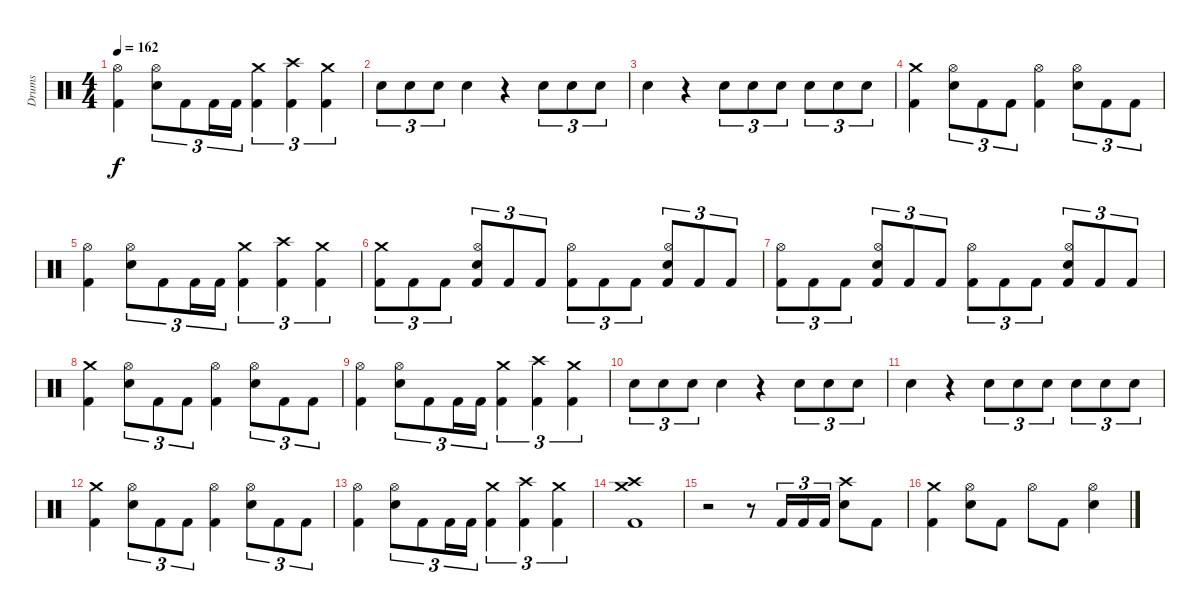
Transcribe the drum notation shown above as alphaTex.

\track ("Drums" "Drums") {instrument percussion}
\staff {score}
\articulation defaults
\ts (4 4)
\tempo 162
\clef neutral
\ks c
("Kick (hit) 2" "Hi-Hat (open)").4{dy f} ("Electric Snare (hit)" "Hi-Hat (open)").8{tu (3 2)} "Kick (hit) 2".8{tu (3 2)} "Kick (hit) 2".16{tu (3 2)} "Kick (hit) 2".16{tu (3 2)} ("Kick (hit) 2" "Crash medium (hit)").4{tu (3 2)} ("Kick (hit) 2" "Crash high (hit)").4{tu (3 2)} ("Kick (hit) 2" "Crash medium (hit)").4{tu (3 2)} |
"Snare (hit) 2".8{tu (3 2)} "Snare (hit) 2".8{tu (3 2)} "Snare (hit) 2".8{tu (3 2)} "Snare (hit) 2".4 r.4 "Snare (hit) 2".8{tu (3 2)} "Snare (hit) 2".8{tu (3 2)} "Snare (hit) 2".8{tu (3 2)} |
"Snare (hit) 2".4 r.4 "Snare (hit) 2".8{tu (3 2)} "Snare (hit) 2".8{tu (3 2)} "Snare (hit) 2".8{tu (3 2)} "Snare (hit) 2".8{tu (3 2)} "Snare (hit) 2".8{tu (3 2)} "Snare (hit) 2".8{tu (3 2)} |
("Kick (hit) 2" "Crash medium (hit)").4 ("Electric Snare (hit)" "Hi-Hat (open)").8{tu (3 2)} "Kick (hit) 2".8{tu (3 2)} "Kick (hit) 2".8{tu (3 2)} ("Kick (hit) 2" "Hi-Hat (open)").4 ("Electric Snare (hit)" "Hi-Hat (open)").8{tu (3 2)} "Kick (hit) 2".8{tu (3 2)} "Kick (hit) 2".8{tu (3 2)} |
("Kick (hit) 2" "Hi-Hat (open)").4 ("Electric Snare (hit)" "Hi-Hat (open)").8{tu (3 2)} "Kick (hit) 2".8{tu (3 2)} "Kick (hit) 2".16{tu (3 2)} "Kick (hit) 2".16{tu (3 2)} ("Kick (hit) 2" "Crash medium (hit)").4{tu (3 2)} ("Kick (hit) 2" "Crash high (hit)").4{tu (3 2)} ("Kick (hit) 2" "Crash medium (hit)").4{tu (3 2)} |
("Kick (hit) 2" "Crash medium (hit)").8{tu (3 2)} "Kick (hit) 2".8{tu (3 2)} "Kick (hit) 2".8{tu (3 2)} ("Kick (hit) 2" "Electric Snare (hit)" "Hi-Hat (open)").8{tu (3 2)} "Kick (hit) 2".8{tu (3 2)} "Kick (hit) 2".8{tu (3 2)} ("Kick (hit) 2" "Hi-Hat (open)").8{tu (3 2)} "Kick (hit) 2".8{tu (3 2)} "Kick (hit) 2".8{tu (3 2)} ("Kick (hit) 2" "Electric Snare (hit)" "Hi-Hat (open)").8{tu (3 2)} "Kick (hit) 2".8{tu (3 2)} "Kick (hit) 2".8{tu (3 2)} |
("Kick (hit) 2" "Hi-Hat (open)").8{tu (3 2)} "Kick (hit) 2".8{tu (3 2)} "Kick (hit) 2".8{tu (3 2)} ("Kick (hit) 2" "Electric Snare (hit)" "Hi-Hat (open)").8{tu (3 2)} "Kick (hit) 2".8{tu (3 2)} "Kick (hit) 2".8{tu (3 2)} ("Kick (hit) 2" "Hi-Hat (open)").8{tu (3 2)} "Kick (hit) 2".8{tu (3 2)} "Kick (hit) 2".8{tu (3 2)} ("Kick (hit) 2" "Electric Snare (hit)" "Hi-Hat (open)").8{tu (3 2)} "Kick (hit) 2".8{tu (3 2)} "Kick (hit) 2".8{tu (3 2)} |
("Kick (hit) 2" "Crash medium (hit)").4 ("Electric Snare (hit)" "Hi-Hat (open)").8{tu (3 2)} "Kick (hit) 2".8{tu (3 2)} "Kick (hit) 2".8{tu (3 2)} ("Kick (hit) 2" "Hi-Hat (open)").4 ("Electric Snare (hit)" "Hi-Hat (open)").8{tu (3 2)} "Kick (hit) 2".8{tu (3 2)} "Kick (hit) 2".8{tu (3 2)} |
("Kick (hit) 2" "Hi-Hat (open)").4 ("Electric Snare (hit)" "Hi-Hat (open)").8{tu (3 2)} "Kick (hit) 2".8{tu (3 2)} "Kick (hit) 2".16{tu (3 2)} "Kick (hit) 2".16{tu (3 2)} ("Kick (hit) 2" "Crash medium (hit)").4{tu (3 2)} ("Kick (hit) 2" "Crash high (hit)").4{tu (3 2)} ("Kick (hit) 2" "Crash medium (hit)").4{tu (3 2)} |
"Snare (hit) 2".8{tu (3 2)} "Snare (hit) 2".8{tu (3 2)} "Snare (hit) 2".8{tu (3 2)} "Snare (hit) 2".4 r.4 "Snare (hit) 2".8{tu (3 2)} "Snare (hit) 2".8{tu (3 2)} "Snare (hit) 2".8{tu (3 2)} |
"Snare (hit) 2".4 r.4 "Snare (hit) 2".8{tu (3 2)} "Snare (hit) 2".8{tu (3 2)} "Snare (hit) 2".8{tu (3 2)} "Snare (hit) 2".8{tu (3 2)} "Snare (hit) 2".8{tu (3 2)} "Snare (hit) 2".8{tu (3 2)} |
("Kick (hit) 2" "Crash medium (hit)").4 ("Electric Snare (hit)" "Hi-Hat (open)").8{tu (3 2)} "Kick (hit) 2".8{tu (3 2)} "Kick (hit) 2".8{tu (3 2)} ("Kick (hit) 2" "Hi-Hat (open)").4 ("Electric Snare (hit)" "Hi-Hat (open)").8{tu (3 2)} "Kick (hit) 2".8{tu (3 2)} "Kick (hit) 2".8{tu (3 2)} |
("Kick (hit) 2" "Hi-Hat (open)").4 ("Electric Snare (hit)" "Hi-Hat (open)").8{tu (3 2)} "Kick (hit) 2".8{tu (3 2)} "Kick (hit) 2".16{tu (3 2)} "Kick (hit) 2".16{tu (3 2)} ("Kick (hit) 2" "Crash medium (hit)").4{tu (3 2)} ("Kick (hit) 2" "Crash high (hit)").4{tu (3 2)} ("Kick (hit) 2" "Crash medium (hit)").4{tu (3 2)} |
("Kick (hit) 2" "Crash medium (hit)" "Crash high (hit)").1 |
r.2 r.8 "Kick (hit) 2".16{tu (3 2)} "Kick (hit) 2".16{tu (3 2)} "Kick (hit) 2".16{tu (3 2)} ("Electric Snare (hit)" "Crash high (hit)").8 "Kick (hit) 2".8 |
("Kick (hit) 2" "Crash medium (hit)").4 ("Electric Snare (hit)" "Hi-Hat (open)").8 "Kick (hit) 2".8 "Hi-Hat (open)".8 "Kick (hit) 2".8 ("Electric Snare (hit)" "Hi-Hat (open)").4
